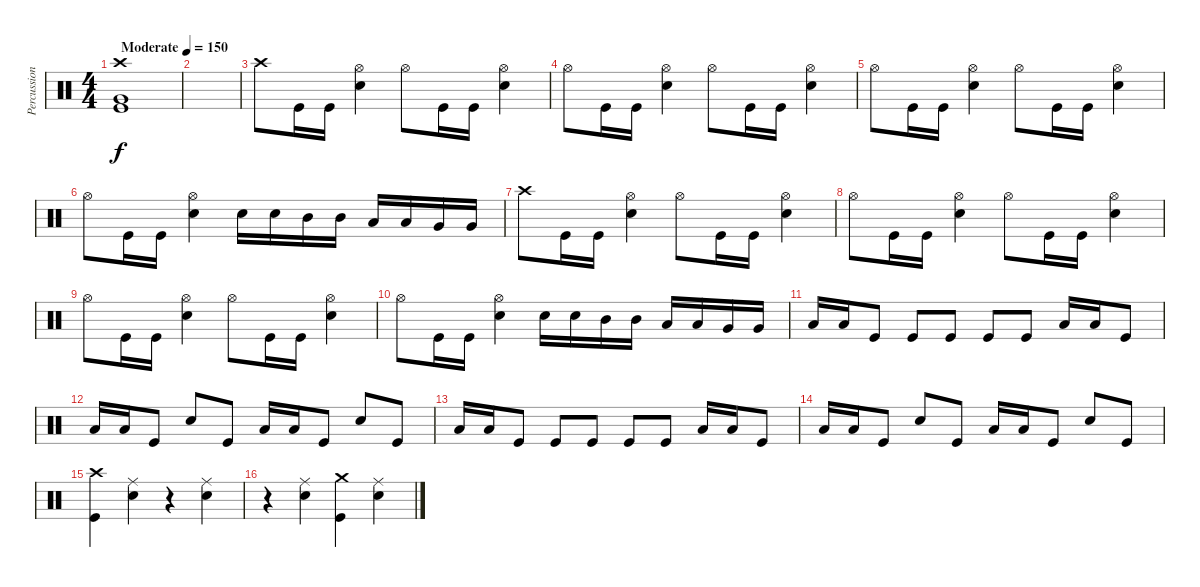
\track ("Percussions" "Percussion") {instrument percussion}
\staff {score}
\articulation defaults
\ts (4 4)
\tempo (150 "Moderate")
\clef neutral
\ks c
("Crash high (hit)" "Very Low Tom (hit)" "Kick (hit)").1{dy f} |
|
"Crash high (hit)".8 "Kick (hit)".16 "Kick (hit)".16 ("Hi-Hat (open)" "Electric Snare (hit)").4 "Hi-Hat (open)".8 "Kick (hit)".16 "Kick (hit)".16 ("Hi-Hat (open)" "Electric Snare (hit)").4 |
"Hi-Hat (open)".8 "Kick (hit)".16 "Kick (hit)".16 ("Hi-Hat (open)" "Electric Snare (hit)").4 "Hi-Hat (open)".8 "Kick (hit)".16 "Kick (hit)".16 ("Hi-Hat (open)" "Electric Snare (hit)").4 |
"Hi-Hat (open)".8 "Kick (hit)".16 "Kick (hit)".16 ("Hi-Hat (open)" "Electric Snare (hit)").4 "Hi-Hat (open)".8 "Kick (hit)".16 "Kick (hit)".16 ("Hi-Hat (open)" "Electric Snare (hit)").4 |
"Hi-Hat (open)".8 "Kick (hit)".16 "Kick (hit)".16 ("Hi-Hat (open)" "Electric Snare (hit)").4 "Electric Snare (hit)".16 "Electric Snare (hit)".16 "Mid Tom (hit)".16 "Mid Tom (hit)".16 "Low Tom (hit)".16 "Low Tom (hit)".16 "Very Low Tom (hit)".16 "Very Low Tom (hit)".16 |
"Crash high (hit)".8 "Kick (hit)".16 "Kick (hit)".16 ("Hi-Hat (open)" "Electric Snare (hit)").4 "Hi-Hat (open)".8 "Kick (hit)".16 "Kick (hit)".16 ("Hi-Hat (open)" "Electric Snare (hit)").4 |
"Hi-Hat (open)".8 "Kick (hit)".16 "Kick (hit)".16 ("Hi-Hat (open)" "Electric Snare (hit)").4 "Hi-Hat (open)".8 "Kick (hit)".16 "Kick (hit)".16 ("Hi-Hat (open)" "Electric Snare (hit)").4 |
"Hi-Hat (open)".8 "Kick (hit)".16 "Kick (hit)".16 ("Hi-Hat (open)" "Electric Snare (hit)").4 "Hi-Hat (open)".8 "Kick (hit)".16 "Kick (hit)".16 ("Hi-Hat (open)" "Electric Snare (hit)").4 |
"Hi-Hat (open)".8 "Kick (hit)".16 "Kick (hit)".16 ("Hi-Hat (open)" "Electric Snare (hit)").4 "Electric Snare (hit)".16 "Electric Snare (hit)".16 "Mid Tom (hit)".16 "Mid Tom (hit)".16 "Low Tom (hit)".16 "Low Tom (hit)".16 "Very Low Tom (hit)".16 "Very Low Tom (hit)".16 |
"Low Tom (hit)".16 "Low Tom (hit)".16 "Kick (hit)".8 "Kick (hit)".8 "Kick (hit)".8 "Kick (hit)".8 "Kick (hit)".8 "Low Tom (hit)".16 "Low Tom (hit)".16 "Kick (hit)".8 |
"Low Tom (hit)".16 "Low Tom (hit)".16 "Kick (hit)".8 "Electric Snare (hit)".8 "Kick (hit)".8 "Low Tom (hit)".16 "Low Tom (hit)".16 "Kick (hit)".8 "Electric Snare (hit)".8 "Kick (hit)".8 |
"Low Tom (hit)".16 "Low Tom (hit)".16 "Kick (hit)".8 "Kick (hit)".8 "Kick (hit)".8 "Kick (hit)".8 "Kick (hit)".8 "Low Tom (hit)".16 "Low Tom (hit)".16 "Kick (hit)".8 |
"Low Tom (hit)".16 "Low Tom (hit)".16 "Kick (hit)".8 "Electric Snare (hit)".8 "Kick (hit)".8 "Low Tom (hit)".16 "Low Tom (hit)".16 "Kick (hit)".8 "Electric Snare (hit)".8 "Kick (hit)".8 |
("Crash high (hit)" "Kick (hit)").4 ("Ride (middle)" "Electric Snare (hit)").4 r.4 ("Ride (middle)" "Electric Snare (hit)").4 |
r.4 ("Ride (middle)" "Electric Snare (hit)").4 ("Crash medium (hit)" "Kick (hit)").4 ("Ride (middle)" "Electric Snare (hit)").4
